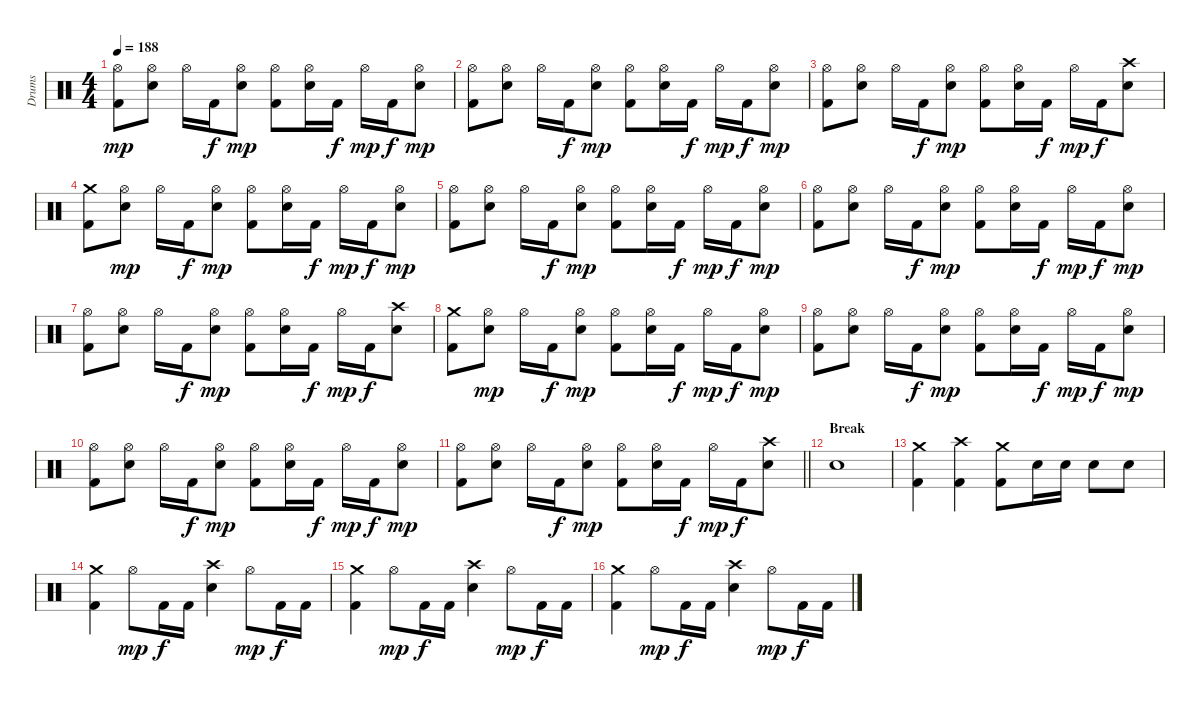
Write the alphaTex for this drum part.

\track ("Drums" "Drums") {instrument percussion}
\staff {score}
\articulation defaults
\ts (4 4)
\tempo 188
\clef neutral
\ks c
("Hi-Hat (open)" "Kick (hit) 2").8{dy mp} ("Hi-Hat (open)" "Snare (hit) 2").8 "Hi-Hat (open)".16 "Kick (hit) 2".16{dy f} ("Hi-Hat (open)" "Snare (hit) 2").8{dy mp} ("Hi-Hat (open)" "Kick (hit) 2").8 ("Hi-Hat (open)" "Snare (hit) 2").16 "Kick (hit) 2".16{dy f} "Hi-Hat (open)".16{dy mp} "Kick (hit) 2".16{dy f} ("Hi-Hat (open)" "Snare (hit) 2").8{dy mp} |
("Hi-Hat (open)" "Kick (hit) 2").8 ("Hi-Hat (open)" "Snare (hit) 2").8 "Hi-Hat (open)".16 "Kick (hit) 2".16{dy f} ("Hi-Hat (open)" "Snare (hit) 2").8{dy mp} ("Hi-Hat (open)" "Kick (hit) 2").8 ("Hi-Hat (open)" "Snare (hit) 2").16 "Kick (hit) 2".16{dy f} "Hi-Hat (open)".16{dy mp} "Kick (hit) 2".16{dy f} ("Hi-Hat (open)" "Snare (hit) 2").8{dy mp} |
("Hi-Hat (open)" "Kick (hit) 2").8 ("Hi-Hat (open)" "Snare (hit) 2").8 "Hi-Hat (open)".16 "Kick (hit) 2".16{dy f} ("Hi-Hat (open)" "Snare (hit) 2").8{dy mp} ("Hi-Hat (open)" "Kick (hit) 2").8 ("Hi-Hat (open)" "Snare (hit) 2").16 "Kick (hit) 2".16{dy f} "Hi-Hat (open)".16{dy mp} "Kick (hit) 2".16{dy f} ("Crash high (hit)" "Snare (hit) 2").8 |
("Crash medium (hit)" "Kick (hit) 2").8 ("Hi-Hat (open)" "Snare (hit) 2").8{dy mp} "Hi-Hat (open)".16 "Kick (hit) 2".16{dy f} ("Hi-Hat (open)" "Snare (hit) 2").8{dy mp} ("Hi-Hat (open)" "Kick (hit) 2").8 ("Hi-Hat (open)" "Snare (hit) 2").16 "Kick (hit) 2".16{dy f} "Hi-Hat (open)".16{dy mp} "Kick (hit) 2".16{dy f} ("Hi-Hat (open)" "Snare (hit) 2").8{dy mp} |
("Hi-Hat (open)" "Kick (hit) 2").8 ("Hi-Hat (open)" "Snare (hit) 2").8 "Hi-Hat (open)".16 "Kick (hit) 2".16{dy f} ("Hi-Hat (open)" "Snare (hit) 2").8{dy mp} ("Hi-Hat (open)" "Kick (hit) 2").8 ("Hi-Hat (open)" "Snare (hit) 2").16 "Kick (hit) 2".16{dy f} "Hi-Hat (open)".16{dy mp} "Kick (hit) 2".16{dy f} ("Hi-Hat (open)" "Snare (hit) 2").8{dy mp} |
("Hi-Hat (open)" "Kick (hit) 2").8 ("Hi-Hat (open)" "Snare (hit) 2").8 "Hi-Hat (open)".16 "Kick (hit) 2".16{dy f} ("Hi-Hat (open)" "Snare (hit) 2").8{dy mp} ("Hi-Hat (open)" "Kick (hit) 2").8 ("Hi-Hat (open)" "Snare (hit) 2").16 "Kick (hit) 2".16{dy f} "Hi-Hat (open)".16{dy mp} "Kick (hit) 2".16{dy f} ("Hi-Hat (open)" "Snare (hit) 2").8{dy mp} |
("Hi-Hat (open)" "Kick (hit) 2").8 ("Hi-Hat (open)" "Snare (hit) 2").8 "Hi-Hat (open)".16 "Kick (hit) 2".16{dy f} ("Hi-Hat (open)" "Snare (hit) 2").8{dy mp} ("Hi-Hat (open)" "Kick (hit) 2").8 ("Hi-Hat (open)" "Snare (hit) 2").16 "Kick (hit) 2".16{dy f} "Hi-Hat (open)".16{dy mp} "Kick (hit) 2".16{dy f} ("Crash high (hit)" "Snare (hit) 2").8 |
("Crash medium (hit)" "Kick (hit) 2").8 ("Hi-Hat (open)" "Snare (hit) 2").8{dy mp} "Hi-Hat (open)".16 "Kick (hit) 2".16{dy f} ("Hi-Hat (open)" "Snare (hit) 2").8{dy mp} ("Hi-Hat (open)" "Kick (hit) 2").8 ("Hi-Hat (open)" "Snare (hit) 2").16 "Kick (hit) 2".16{dy f} "Hi-Hat (open)".16{dy mp} "Kick (hit) 2".16{dy f} ("Hi-Hat (open)" "Snare (hit) 2").8{dy mp} |
("Hi-Hat (open)" "Kick (hit) 2").8 ("Hi-Hat (open)" "Snare (hit) 2").8 "Hi-Hat (open)".16 "Kick (hit) 2".16{dy f} ("Hi-Hat (open)" "Snare (hit) 2").8{dy mp} ("Hi-Hat (open)" "Kick (hit) 2").8 ("Hi-Hat (open)" "Snare (hit) 2").16 "Kick (hit) 2".16{dy f} "Hi-Hat (open)".16{dy mp} "Kick (hit) 2".16{dy f} ("Hi-Hat (open)" "Snare (hit) 2").8{dy mp} |
("Hi-Hat (open)" "Kick (hit) 2").8 ("Hi-Hat (open)" "Snare (hit) 2").8 "Hi-Hat (open)".16 "Kick (hit) 2".16{dy f} ("Hi-Hat (open)" "Snare (hit) 2").8{dy mp} ("Hi-Hat (open)" "Kick (hit) 2").8 ("Hi-Hat (open)" "Snare (hit) 2").16 "Kick (hit) 2".16{dy f} "Hi-Hat (open)".16{dy mp} "Kick (hit) 2".16{dy f} ("Hi-Hat (open)" "Snare (hit) 2").8{dy mp} |
\barLineRight lightlight
("Hi-Hat (open)" "Kick (hit) 2").8 ("Hi-Hat (open)" "Snare (hit) 2").8 "Hi-Hat (open)".16 "Kick (hit) 2".16{dy f} ("Hi-Hat (open)" "Snare (hit) 2").8{dy mp} ("Hi-Hat (open)" "Kick (hit) 2").8 ("Hi-Hat (open)" "Snare (hit) 2").16 "Kick (hit) 2".16{dy f} "Hi-Hat (open)".16{dy mp} "Kick (hit) 2".16{dy f} ("Crash high (hit)" "Snare (hit) 2").8 |
\section ("" "Break")
"Snare (hit) 2".1 |
("Crash medium (hit)" "Kick (hit) 2").4 ("Crash high (hit)" "Kick (hit) 2").4 ("Crash medium (hit)" "Kick (hit) 2").8 "Snare (hit) 2".16 "Snare (hit) 2".16 "Snare (hit) 2".8 "Snare (hit) 2".8 |
("Crash medium (hit)" "Kick (hit) 2").4 "Hi-Hat (open)".8{dy mp} "Kick (hit) 2".16{dy f} "Kick (hit) 2".16 ("Crash high (hit)" "Snare (hit) 2").4 "Hi-Hat (open)".8{dy mp} "Kick (hit) 2".16{dy f} "Kick (hit) 2".16 |
("Crash medium (hit)" "Kick (hit) 2").4 "Hi-Hat (open)".8{dy mp} "Kick (hit) 2".16{dy f} "Kick (hit) 2".16 ("Crash high (hit)" "Snare (hit) 2").4 "Hi-Hat (open)".8{dy mp} "Kick (hit) 2".16{dy f} "Kick (hit) 2".16 |
("Crash medium (hit)" "Kick (hit) 2").4 "Hi-Hat (open)".8{dy mp} "Kick (hit) 2".16{dy f} "Kick (hit) 2".16 ("Crash high (hit)" "Snare (hit) 2").4 "Hi-Hat (open)".8{dy mp} "Kick (hit) 2".16{dy f} "Kick (hit) 2".16
